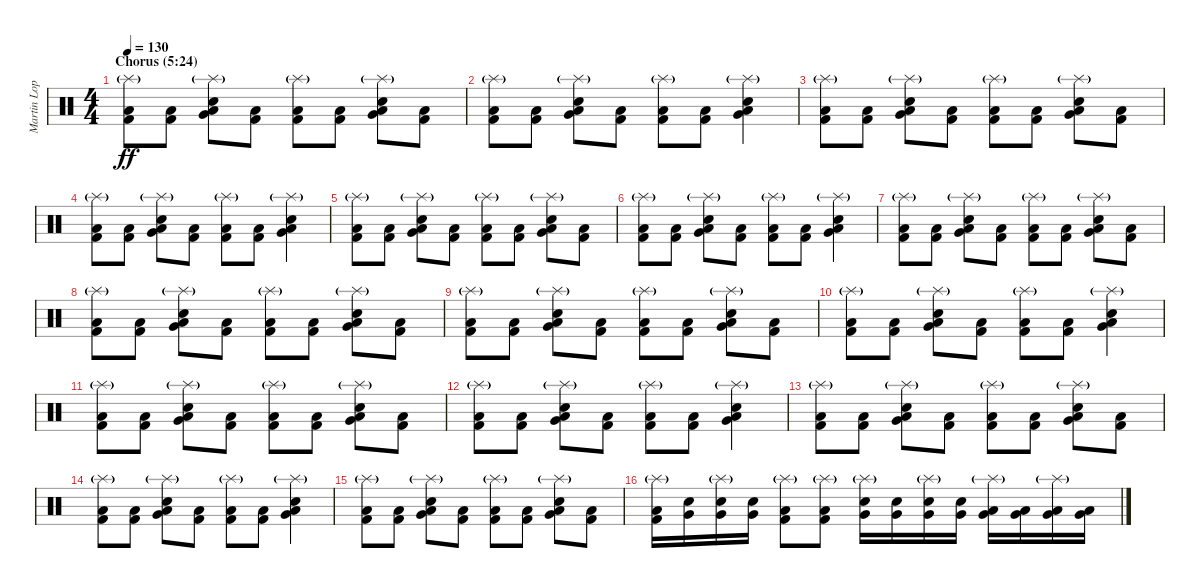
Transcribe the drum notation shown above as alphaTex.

\track ("Martin Lopez" "Martin Lop") {instrument percussion}
\staff {score}
\articulation defaults
\ts (4 4)
\section ("" "Chorus (5:24)")
\tempo 130
\clef neutral
\ks c
("Splash (hit)"{g} "Kick (hit) 2" "Low Floor Tom (hit)").8{dy ff} ("Kick (hit) 2" "Low Floor Tom (hit)").8 ("Splash (hit)"{g} "Very Low Tom (hit)" "Snare (hit) 2" "Low Floor Tom (hit)").8 ("Kick (hit) 2" "Low Floor Tom (hit)").8 ("Splash (hit)"{g} "Kick (hit) 2" "Low Floor Tom (hit)").8 ("Kick (hit) 2" "Low Floor Tom (hit)").8 ("Splash (hit)"{g} "Very Low Tom (hit)" "Snare (hit) 2" "Low Floor Tom (hit)").8 ("Kick (hit) 2" "Low Floor Tom (hit)").8 |
("Splash (hit)"{g} "Kick (hit) 2" "Low Floor Tom (hit)").8 ("Kick (hit) 2" "Low Floor Tom (hit)").8 ("Splash (hit)"{g} "Very Low Tom (hit)" "Snare (hit) 2" "Low Floor Tom (hit)").8 ("Kick (hit) 2" "Low Floor Tom (hit)").8 ("Splash (hit)"{g} "Kick (hit) 2" "Low Floor Tom (hit)").8 ("Kick (hit) 2" "Low Floor Tom (hit)").8 ("Splash (hit)"{g} "Very Low Tom (hit)" "Snare (hit) 2" "Low Floor Tom (hit)").4 |
("Splash (hit)"{g} "Kick (hit) 2" "Low Floor Tom (hit)").8 ("Kick (hit) 2" "Low Floor Tom (hit)").8 ("Splash (hit)"{g} "Very Low Tom (hit)" "Snare (hit) 2" "Low Floor Tom (hit)").8 ("Kick (hit) 2" "Low Floor Tom (hit)").8 ("Splash (hit)"{g} "Kick (hit) 2" "Low Floor Tom (hit)").8 ("Kick (hit) 2" "Low Floor Tom (hit)").8 ("Splash (hit)"{g} "Very Low Tom (hit)" "Snare (hit) 2" "Low Floor Tom (hit)").8 ("Kick (hit) 2" "Low Floor Tom (hit)").8 |
("Splash (hit)"{g} "Kick (hit) 2" "Low Floor Tom (hit)").8 ("Kick (hit) 2" "Low Floor Tom (hit)").8 ("Splash (hit)"{g} "Very Low Tom (hit)" "Snare (hit) 2" "Low Floor Tom (hit)").8 ("Kick (hit) 2" "Low Floor Tom (hit)").8 ("Splash (hit)"{g} "Kick (hit) 2" "Low Floor Tom (hit)").8 ("Kick (hit) 2" "Low Floor Tom (hit)").8 ("Splash (hit)"{g} "Very Low Tom (hit)" "Snare (hit) 2" "Low Floor Tom (hit)").4 |
("Splash (hit)"{g} "Kick (hit) 2" "Low Floor Tom (hit)").8 ("Kick (hit) 2" "Low Floor Tom (hit)").8 ("Splash (hit)"{g} "Very Low Tom (hit)" "Snare (hit) 2" "Low Floor Tom (hit)").8 ("Kick (hit) 2" "Low Floor Tom (hit)").8 ("Splash (hit)"{g} "Kick (hit) 2" "Low Floor Tom (hit)").8 ("Kick (hit) 2" "Low Floor Tom (hit)").8 ("Splash (hit)"{g} "Very Low Tom (hit)" "Snare (hit) 2" "Low Floor Tom (hit)").8 ("Kick (hit) 2" "Low Floor Tom (hit)").8 |
("Splash (hit)"{g} "Kick (hit) 2" "Low Floor Tom (hit)").8 ("Kick (hit) 2" "Low Floor Tom (hit)").8 ("Splash (hit)"{g} "Very Low Tom (hit)" "Snare (hit) 2" "Low Floor Tom (hit)").8 ("Kick (hit) 2" "Low Floor Tom (hit)").8 ("Splash (hit)"{g} "Kick (hit) 2" "Low Floor Tom (hit)").8 ("Kick (hit) 2" "Low Floor Tom (hit)").8 ("Splash (hit)"{g} "Very Low Tom (hit)" "Snare (hit) 2" "Low Floor Tom (hit)").4 |
("Splash (hit)"{g} "Kick (hit) 2" "Low Floor Tom (hit)").8 ("Kick (hit) 2" "Low Floor Tom (hit)").8 ("Splash (hit)"{g} "Very Low Tom (hit)" "Snare (hit) 2" "Low Floor Tom (hit)").8 ("Kick (hit) 2" "Low Floor Tom (hit)").8 ("Splash (hit)"{g} "Kick (hit) 2" "Low Floor Tom (hit)").8 ("Kick (hit) 2" "Low Floor Tom (hit)").8 ("Splash (hit)"{g} "Very Low Tom (hit)" "Snare (hit) 2" "Low Floor Tom (hit)").8 ("Kick (hit) 2" "Low Floor Tom (hit)").8 |
("Splash (hit)"{g} "Kick (hit) 2" "Low Floor Tom (hit)").8 ("Kick (hit) 2" "Low Floor Tom (hit)").8 ("Splash (hit)"{g} "Very Low Tom (hit)" "Snare (hit) 2" "Low Floor Tom (hit)").8 ("Kick (hit) 2" "Low Floor Tom (hit)").8 ("Splash (hit)"{g} "Kick (hit) 2" "Low Floor Tom (hit)").8 ("Kick (hit) 2" "Low Floor Tom (hit)").8 ("Splash (hit)"{g} "Very Low Tom (hit)" "Snare (hit) 2" "Low Floor Tom (hit)").8 ("Kick (hit) 2" "Low Floor Tom (hit)").8 |
("Splash (hit)"{g} "Kick (hit) 2" "Low Floor Tom (hit)").8 ("Kick (hit) 2" "Low Floor Tom (hit)").8 ("Splash (hit)"{g} "Very Low Tom (hit)" "Snare (hit) 2" "Low Floor Tom (hit)").8 ("Kick (hit) 2" "Low Floor Tom (hit)").8 ("Splash (hit)"{g} "Kick (hit) 2" "Low Floor Tom (hit)").8 ("Kick (hit) 2" "Low Floor Tom (hit)").8 ("Splash (hit)"{g} "Very Low Tom (hit)" "Snare (hit) 2" "Low Floor Tom (hit)").8 ("Kick (hit) 2" "Low Floor Tom (hit)").8 |
("Splash (hit)"{g} "Kick (hit) 2" "Low Floor Tom (hit)").8 ("Kick (hit) 2" "Low Floor Tom (hit)").8 ("Splash (hit)"{g} "Very Low Tom (hit)" "Snare (hit) 2" "Low Floor Tom (hit)").8 ("Kick (hit) 2" "Low Floor Tom (hit)").8 ("Splash (hit)"{g} "Kick (hit) 2" "Low Floor Tom (hit)").8 ("Kick (hit) 2" "Low Floor Tom (hit)").8 ("Splash (hit)"{g} "Very Low Tom (hit)" "Snare (hit) 2" "Low Floor Tom (hit)").4 |
("Splash (hit)"{g} "Kick (hit) 2" "Low Floor Tom (hit)").8 ("Kick (hit) 2" "Low Floor Tom (hit)").8 ("Splash (hit)"{g} "Very Low Tom (hit)" "Snare (hit) 2" "Low Floor Tom (hit)").8 ("Kick (hit) 2" "Low Floor Tom (hit)").8 ("Splash (hit)"{g} "Kick (hit) 2" "Low Floor Tom (hit)").8 ("Kick (hit) 2" "Low Floor Tom (hit)").8 ("Splash (hit)"{g} "Very Low Tom (hit)" "Snare (hit) 2" "Low Floor Tom (hit)").8 ("Kick (hit) 2" "Low Floor Tom (hit)").8 |
("Splash (hit)"{g} "Kick (hit) 2" "Low Floor Tom (hit)").8 ("Kick (hit) 2" "Low Floor Tom (hit)").8 ("Splash (hit)"{g} "Very Low Tom (hit)" "Snare (hit) 2" "Low Floor Tom (hit)").8 ("Kick (hit) 2" "Low Floor Tom (hit)").8 ("Splash (hit)"{g} "Kick (hit) 2" "Low Floor Tom (hit)").8 ("Kick (hit) 2" "Low Floor Tom (hit)").8 ("Splash (hit)"{g} "Very Low Tom (hit)" "Snare (hit) 2" "Low Floor Tom (hit)").4 |
("Splash (hit)"{g} "Kick (hit) 2" "Low Floor Tom (hit)").8 ("Kick (hit) 2" "Low Floor Tom (hit)").8 ("Splash (hit)"{g} "Very Low Tom (hit)" "Snare (hit) 2" "Low Floor Tom (hit)").8 ("Kick (hit) 2" "Low Floor Tom (hit)").8 ("Splash (hit)"{g} "Kick (hit) 2" "Low Floor Tom (hit)").8 ("Kick (hit) 2" "Low Floor Tom (hit)").8 ("Splash (hit)"{g} "Very Low Tom (hit)" "Snare (hit) 2" "Low Floor Tom (hit)").8 ("Kick (hit) 2" "Low Floor Tom (hit)").8 |
("Splash (hit)"{g} "Kick (hit) 2" "Low Floor Tom (hit)").8 ("Kick (hit) 2" "Low Floor Tom (hit)").8 ("Splash (hit)"{g} "Very Low Tom (hit)" "Snare (hit) 2" "Low Floor Tom (hit)").8 ("Kick (hit) 2" "Low Floor Tom (hit)").8 ("Splash (hit)"{g} "Kick (hit) 2" "Low Floor Tom (hit)").8 ("Kick (hit) 2" "Low Floor Tom (hit)").8 ("Splash (hit)"{g} "Very Low Tom (hit)" "Snare (hit) 2" "Low Floor Tom (hit)").4 |
("Splash (hit)"{g} "Kick (hit) 2" "Low Floor Tom (hit)").8 ("Kick (hit) 2" "Low Floor Tom (hit)").8 ("Splash (hit)"{g} "Very Low Tom (hit)" "Snare (hit) 2" "Low Floor Tom (hit)").8 ("Kick (hit) 2" "Low Floor Tom (hit)").8 ("Splash (hit)"{g} "Kick (hit) 2" "Low Floor Tom (hit)").8 ("Kick (hit) 2" "Low Floor Tom (hit)").8 ("Splash (hit)"{g} "Very Low Tom (hit)" "Snare (hit) 2" "Low Floor Tom (hit)").8 ("Kick (hit) 2" "Low Floor Tom (hit)").8 |
("Splash (hit)"{g} "Kick (hit) 2" "Low Floor Tom (hit)").16 ("Very Low Tom (hit)" "Snare (hit) 2").16 ("Splash (hit)"{g} "Very Low Tom (hit)" "Snare (hit) 2").16 ("Very Low Tom (hit)" "Snare (hit) 2").16 ("Splash (hit)"{g} "Kick (hit) 2" "Low Floor Tom (hit)").8 ("Splash (hit)"{g} "Kick (hit) 2" "Low Floor Tom (hit)").8 ("Splash (hit)"{g} "Very Low Tom (hit)" "Snare (hit) 2").16 ("Very Low Tom (hit)" "Snare (hit) 2").16 ("Splash (hit)"{g} "Very Low Tom (hit)" "Snare (hit) 2").16 ("Very Low Tom (hit)" "Snare (hit) 2").16 ("Splash (hit)"{g} "Very Low Tom (hit)" "Low Floor Tom (hit)").16 ("Very Low Tom (hit)" "Low Floor Tom (hit)").16 ("Splash (hit)"{g} "Very Low Tom (hit)" "Low Floor Tom (hit)").16 ("Very Low Tom (hit)" "Low Floor Tom (hit)").16
